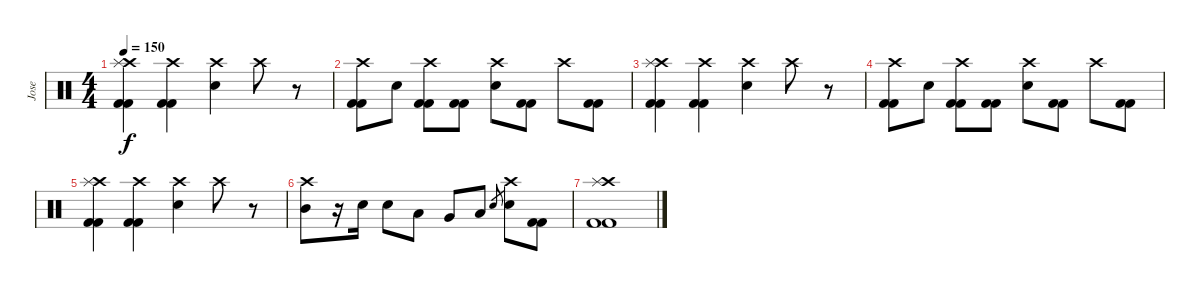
\track ("Jose" "Jose") {instrument percussion}
\staff {score}
\articulation defaults
\ts (4 4)
\tempo 150
\clef neutral
\ks c
("Crash high (hit)" "Splash (hit)" "Kick (hit) 2" "Kick (hit) 2").4{dy f} ("Crash high (hit)" "Kick (hit) 2" "Kick (hit) 2").4 ("Crash high (hit)" "Electric Snare (hit)").4 "Crash high (hit)".8 r.8 |
("Crash high (hit)" "Kick (hit) 2" "Kick (hit) 2").8 "Electric Snare (hit)".8 ("Crash high (hit)" "Kick (hit) 2" "Kick (hit) 2").8 ("Kick (hit) 2" "Kick (hit) 2").8 ("Crash high (hit)" "Electric Snare (hit)").8 ("Kick (hit) 2" "Kick (hit) 2").8 "Crash high (hit)".8 ("Kick (hit) 2" "Kick (hit) 2").8 |
("Crash high (hit)" "Splash (hit)" "Kick (hit) 2" "Kick (hit) 2").4 ("Crash high (hit)" "Kick (hit) 2" "Kick (hit) 2").4 ("Crash high (hit)" "Electric Snare (hit)").4 "Crash high (hit)".8 r.8 |
("Crash high (hit)" "Kick (hit) 2" "Kick (hit) 2").8 "Electric Snare (hit)".8 ("Crash high (hit)" "Kick (hit) 2" "Kick (hit) 2").8 ("Kick (hit) 2" "Kick (hit) 2").8 ("Crash high (hit)" "Electric Snare (hit)").8 ("Kick (hit) 2" "Kick (hit) 2").8 "Crash high (hit)".8 ("Kick (hit) 2" "Kick (hit) 2").8 |
("Crash high (hit)" "Splash (hit)" "Kick (hit) 2" "Kick (hit) 2").4 ("Crash high (hit)" "Kick (hit) 2" "Kick (hit) 2").4 ("Crash high (hit)" "Electric Snare (hit)").4 "Crash high (hit)".8 r.8 |
("Crash high (hit)" "Mid Tom (hit)").8 r.16 "Electric Snare (hit)".16 "Electric Snare (hit)".8 "Low Tom (hit)".8 "Very Low Tom (hit)".8 "Low Floor Tom (hit)".8 "Electric Snare (hit)".8{gr} ("Crash high (hit)" "Electric Snare (hit)").8 ("Kick (hit) 2" "Kick (hit) 2").8 |
("Crash high (hit)" "Splash (hit)" "Kick (hit) 2" "Kick (hit) 2").1
